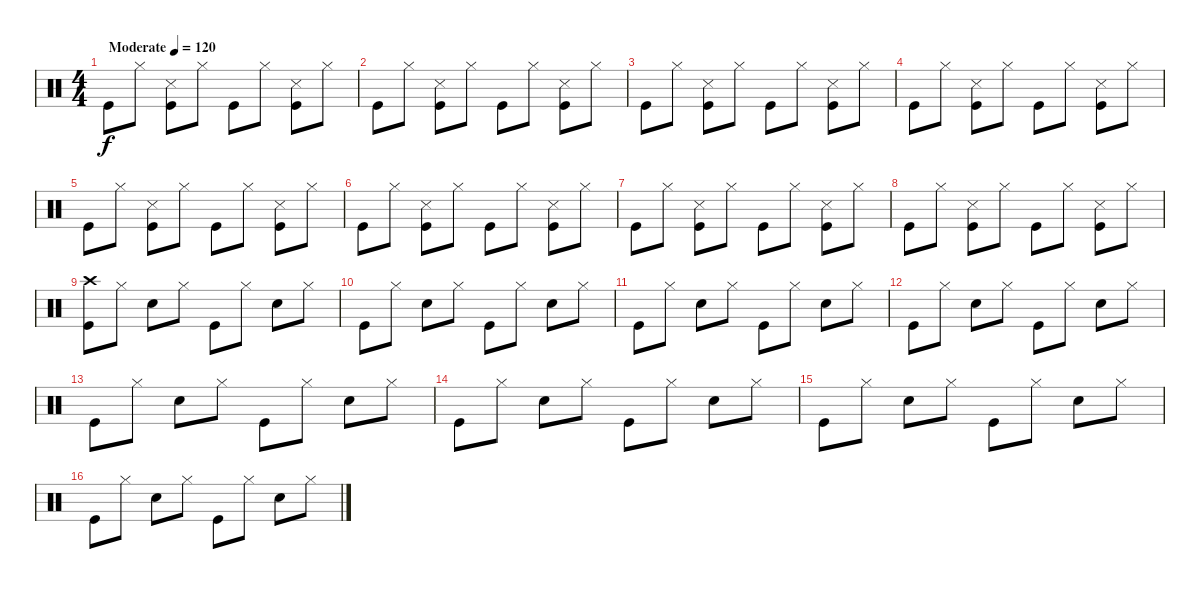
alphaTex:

\track "" {instrument percussion}
\staff {score}
\articulation defaults
\ts (4 4)
\tempo (120 "Moderate")
\clef neutral
\ks c "Kick (hit)".8{dy f} "Hi-Hat (closed)".8
("Snare (side stick) 3" "Kick (hit)").8 "Hi-Hat (closed)".8 "Kick (hit)".8 "Hi-Hat (closed)".8 ("Snare (side stick) 3" "Kick (hit)").8 "Hi-Hat (closed)".8 |
"Kick (hit)".8 "Hi-Hat (closed)".8 ("Snare (side stick) 3" "Kick (hit)").8 "Hi-Hat (closed)".8 "Kick (hit)".8 "Hi-Hat (closed)".8 ("Snare (side stick) 3" "Kick (hit)").8 "Hi-Hat (closed)".8 |
"Kick (hit)".8 "Hi-Hat (closed)".8 ("Snare (side stick) 3" "Kick (hit)").8 "Hi-Hat (closed)".8 "Kick (hit)".8 "Hi-Hat (closed)".8 ("Snare (side stick) 3" "Kick (hit)").8 "Hi-Hat (closed)".8 |
"Kick (hit)".8 "Hi-Hat (closed)".8 ("Snare (side stick) 3" "Kick (hit)").8 "Hi-Hat (closed)".8 "Kick (hit)".8 "Hi-Hat (closed)".8 ("Snare (side stick) 3" "Kick (hit)").8 "Hi-Hat (closed)".8 |
"Kick (hit)".8 "Hi-Hat (closed)".8 ("Snare (side stick) 3" "Kick (hit)").8 "Hi-Hat (closed)".8 "Kick (hit)".8 "Hi-Hat (closed)".8 ("Snare (side stick) 3" "Kick (hit)").8 "Hi-Hat (closed)".8 |
"Kick (hit)".8 "Hi-Hat (closed)".8 ("Snare (side stick) 3" "Kick (hit)").8 "Hi-Hat (closed)".8 "Kick (hit)".8 "Hi-Hat (closed)".8 ("Snare (side stick) 3" "Kick (hit)").8 "Hi-Hat (closed)".8 |
"Kick (hit)".8 "Hi-Hat (closed)".8 ("Snare (side stick) 3" "Kick (hit)").8 "Hi-Hat (closed)".8 "Kick (hit)".8 "Hi-Hat (closed)".8 ("Snare (side stick) 3" "Kick (hit)").8 "Hi-Hat (closed)".8 |
"Kick (hit)".8 "Hi-Hat (closed)".8 ("Snare (side stick) 3" "Kick (hit)").8 "Hi-Hat (closed)".8 "Kick (hit)".8 "Hi-Hat (closed)".8 ("Snare (side stick) 3" "Kick (hit)").8 "Hi-Hat (closed)".8 |
("Crash high (hit)" "Kick (hit)").8 "Hi-Hat (closed)".8 "Electric Snare (hit)".8 "Hi-Hat (closed)".8 "Kick (hit)".8 "Hi-Hat (closed)".8 "Electric Snare (hit)".8 "Hi-Hat (closed)".8 |
"Kick (hit)".8 "Hi-Hat (closed)".8 "Electric Snare (hit)".8 "Hi-Hat (closed)".8 "Kick (hit)".8 "Hi-Hat (closed)".8 "Electric Snare (hit)".8 "Hi-Hat (closed)".8 |
"Kick (hit)".8 "Hi-Hat (closed)".8 "Electric Snare (hit)".8 "Hi-Hat (closed)".8 "Kick (hit)".8 "Hi-Hat (closed)".8 "Electric Snare (hit)".8 "Hi-Hat (closed)".8 |
"Kick (hit)".8 "Hi-Hat (closed)".8 "Electric Snare (hit)".8 "Hi-Hat (closed)".8 "Kick (hit)".8 "Hi-Hat (closed)".8 "Electric Snare (hit)".8 "Hi-Hat (closed)".8 |
"Kick (hit)".8 "Hi-Hat (closed)".8 "Electric Snare (hit)".8 "Hi-Hat (closed)".8 "Kick (hit)".8 "Hi-Hat (closed)".8 "Electric Snare (hit)".8 "Hi-Hat (closed)".8 |
"Kick (hit)".8 "Hi-Hat (closed)".8 "Electric Snare (hit)".8 "Hi-Hat (closed)".8 "Kick (hit)".8 "Hi-Hat (closed)".8 "Electric Snare (hit)".8 "Hi-Hat (closed)".8 |
"Kick (hit)".8 "Hi-Hat (closed)".8 "Electric Snare (hit)".8 "Hi-Hat (closed)".8 "Kick (hit)".8 "Hi-Hat (closed)".8 "Electric Snare (hit)".8 "Hi-Hat (closed)".8 |
"Kick (hit)".8 "Hi-Hat (closed)".8 "Electric Snare (hit)".8 "Hi-Hat (closed)".8 "Kick (hit)".8 "Hi-Hat (closed)".8 "Electric Snare (hit)".8 "Hi-Hat (closed)".8
